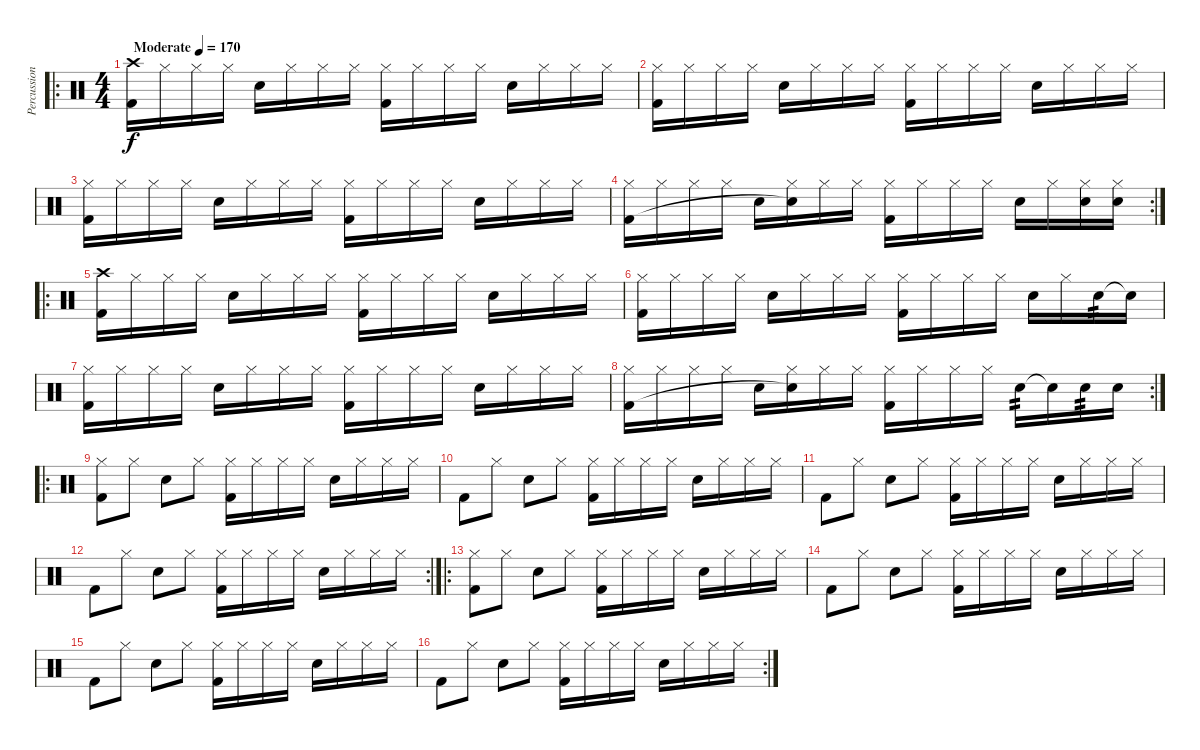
\track ("Percussion" "Percussion") {instrument percussion}
\staff {score}
\articulation defaults
\ro
\ts (4 4)
\tempo (170 "Moderate")
\clef neutral
\ks c
("Crash high (hit)" "Kick (hit) 2").16{dy f} "Hi-Hat (closed)".16 "Hi-Hat (closed)".16 "Hi-Hat (closed)".16 "Electric Snare (hit)".16 "Hi-Hat (closed)".16 "Hi-Hat (closed)".16 "Hi-Hat (closed)".16 ("Hi-Hat (closed)" "Kick (hit) 2").16 "Hi-Hat (closed)".16 "Hi-Hat (closed)".16 "Hi-Hat (closed)".16 "Electric Snare (hit)".16 "Hi-Hat (closed)".16 "Hi-Hat (closed)".16 "Hi-Hat (closed)".16 |
("Hi-Hat (closed)" "Kick (hit) 2").16 "Hi-Hat (closed)".16 "Hi-Hat (closed)".16 "Hi-Hat (closed)".16 "Electric Snare (hit)".16 "Hi-Hat (closed)".16 "Hi-Hat (closed)".16 "Hi-Hat (closed)".16 ("Hi-Hat (closed)" "Kick (hit) 2").16 "Hi-Hat (closed)".16 "Hi-Hat (closed)".16 "Hi-Hat (closed)".16 "Electric Snare (hit)".16 "Hi-Hat (closed)".16 "Hi-Hat (closed)".16 "Hi-Hat (closed)".16 |
("Hi-Hat (closed)" "Kick (hit) 2").16 "Hi-Hat (closed)".16 "Hi-Hat (closed)".16 "Hi-Hat (closed)".16 "Electric Snare (hit)".16 "Hi-Hat (closed)".16 "Hi-Hat (closed)".16 "Hi-Hat (closed)".16 ("Hi-Hat (closed)" "Kick (hit) 2").16 "Hi-Hat (closed)".16 "Hi-Hat (closed)".16 "Hi-Hat (closed)".16 "Electric Snare (hit)".16 "Hi-Hat (closed)".16 "Hi-Hat (closed)".16 "Hi-Hat (closed)".16 |
\rc 2
("Hi-Hat (closed)" "Kick (hit) 2").16 "Hi-Hat (closed)".16 "Hi-Hat (closed)".16 "Hi-Hat (closed)".16 "Electric Snare (hit)".16 ("Hi-Hat (closed)" "Snare (hit)"{t}).16 "Hi-Hat (closed)".16 "Hi-Hat (closed)".16 ("Hi-Hat (closed)" "Kick (hit) 2").16 "Hi-Hat (closed)".16 "Hi-Hat (closed)".16 "Hi-Hat (closed)".16 "Electric Snare (hit)".16 "Hi-Hat (closed)".16 ("Hi-Hat (closed)" "Electric Snare (hit)").16 ("Hi-Hat (closed)" "Electric Snare (hit)").16 |
\ro
("Crash high (hit)" "Kick (hit) 2").16 "Hi-Hat (closed)".16 "Hi-Hat (closed)".16 "Hi-Hat (closed)".16 "Electric Snare (hit)".16 "Hi-Hat (closed)".16 "Hi-Hat (closed)".16 "Hi-Hat (closed)".16 ("Hi-Hat (closed)" "Kick (hit) 2").16 "Hi-Hat (closed)".16 "Hi-Hat (closed)".16 "Hi-Hat (closed)".16 "Electric Snare (hit)".16 "Hi-Hat (closed)".16 "Hi-Hat (closed)".16 "Hi-Hat (closed)".16 |
("Hi-Hat (closed)" "Kick (hit) 2").16 "Hi-Hat (closed)".16 "Hi-Hat (closed)".16 "Hi-Hat (closed)".16 "Electric Snare (hit)".16 "Hi-Hat (closed)".16 "Hi-Hat (closed)".16 "Hi-Hat (closed)".16 ("Hi-Hat (closed)" "Kick (hit) 2").16 "Hi-Hat (closed)".16 "Hi-Hat (closed)".16 "Hi-Hat (closed)".16 "Electric Snare (hit)".16 "Hi-Hat (closed)".16 "Electric Snare (hit)".16{tp 2} "Electric Snare (hit)"{t}.16 |
("Hi-Hat (closed)" "Kick (hit) 2").16 "Hi-Hat (closed)".16 "Hi-Hat (closed)".16 "Hi-Hat (closed)".16 "Electric Snare (hit)".16 "Hi-Hat (closed)".16 "Hi-Hat (closed)".16 "Hi-Hat (closed)".16 ("Hi-Hat (closed)" "Kick (hit) 2").16 "Hi-Hat (closed)".16 "Hi-Hat (closed)".16 "Hi-Hat (closed)".16 "Electric Snare (hit)".16 "Hi-Hat (closed)".16 "Hi-Hat (closed)".16 "Hi-Hat (closed)".16 |
\rc 2
("Hi-Hat (closed)" "Kick (hit) 2").16 "Hi-Hat (closed)".16 "Hi-Hat (closed)".16 "Hi-Hat (closed)".16 "Electric Snare (hit)".16 ("Hi-Hat (closed)" "Snare (hit)"{t}).16 "Hi-Hat (closed)".16 "Hi-Hat (closed)".16 ("Hi-Hat (closed)" "Kick (hit) 2").16 "Hi-Hat (closed)".16 "Hi-Hat (closed)".16 "Hi-Hat (closed)".16 "Electric Snare (hit)".16{tp 2} "Snare (hit)"{t}.16 "Snare (hit) 2".16{tp 2} "Electric Snare (hit)".16 |
\ro
("Hi-Hat (closed)" "Kick (hit) 2").8 "Hi-Hat (closed)".8 "Electric Snare (hit)".8 "Hi-Hat (closed)".8 ("Hi-Hat (closed)" "Kick (hit) 2").16 "Hi-Hat (closed)".16 "Hi-Hat (closed)".16 "Hi-Hat (closed)".16 "Electric Snare (hit)".16 "Hi-Hat (closed)".16 "Hi-Hat (closed)".16 "Hi-Hat (closed)".16 |
"Kick (hit) 2".8 "Hi-Hat (closed)".8 "Electric Snare (hit)".8 "Hi-Hat (closed)".8 ("Hi-Hat (closed)" "Kick (hit) 2").16 "Hi-Hat (closed)".16 "Hi-Hat (closed)".16 "Hi-Hat (closed)".16 "Electric Snare (hit)".16 "Hi-Hat (closed)".16 "Hi-Hat (closed)".16 "Hi-Hat (closed)".16 |
"Kick (hit) 2".8 "Hi-Hat (closed)".8 "Electric Snare (hit)".8 "Hi-Hat (closed)".8 ("Hi-Hat (closed)" "Kick (hit) 2").16 "Hi-Hat (closed)".16 "Hi-Hat (closed)".16 "Hi-Hat (closed)".16 "Electric Snare (hit)".16 "Hi-Hat (closed)".16 "Hi-Hat (closed)".16 "Hi-Hat (closed)".16 |
\rc 2 "Kick (hit) 2".8 "Hi-Hat (closed)".8 "Electric Snare (hit)".8 "Hi-Hat (closed)".8
("Hi-Hat (closed)" "Kick (hit) 2").16 "Hi-Hat (closed)".16 "Hi-Hat (closed)".16 "Hi-Hat (closed)".16 "Electric Snare (hit)".16 "Hi-Hat (closed)".16 "Hi-Hat (closed)".16 "Hi-Hat (closed)".16 |
\ro
("Hi-Hat (closed)" "Kick (hit) 2").8 "Hi-Hat (closed)".8 "Electric Snare (hit)".8 "Hi-Hat (closed)".8 ("Hi-Hat (closed)" "Kick (hit) 2").16 "Hi-Hat (closed)".16 "Hi-Hat (closed)".16 "Hi-Hat (closed)".16 "Electric Snare (hit)".16 "Hi-Hat (closed)".16 "Hi-Hat (closed)".16 "Hi-Hat (closed)".16 |
"Kick (hit) 2".8 "Hi-Hat (closed)".8 "Electric Snare (hit)".8 "Hi-Hat (closed)".8 ("Hi-Hat (closed)" "Kick (hit) 2").16 "Hi-Hat (closed)".16 "Hi-Hat (closed)".16 "Hi-Hat (closed)".16 "Electric Snare (hit)".16 "Hi-Hat (closed)".16 "Hi-Hat (closed)".16 "Hi-Hat (closed)".16 |
"Kick (hit) 2".8 "Hi-Hat (closed)".8 "Electric Snare (hit)".8 "Hi-Hat (closed)".8 ("Hi-Hat (closed)" "Kick (hit) 2").16 "Hi-Hat (closed)".16 "Hi-Hat (closed)".16 "Hi-Hat (closed)".16 "Electric Snare (hit)".16 "Hi-Hat (closed)".16 "Hi-Hat (closed)".16 "Hi-Hat (closed)".16 |
\rc 2 "Kick (hit) 2".8 "Hi-Hat (closed)".8 "Electric Snare (hit)".8 "Hi-Hat (closed)".8
("Hi-Hat (closed)" "Kick (hit) 2").16 "Hi-Hat (closed)".16 "Hi-Hat (closed)".16 "Hi-Hat (closed)".16 "Electric Snare (hit)".16 "Hi-Hat (closed)".16 "Hi-Hat (closed)".16 "Hi-Hat (closed)".16
